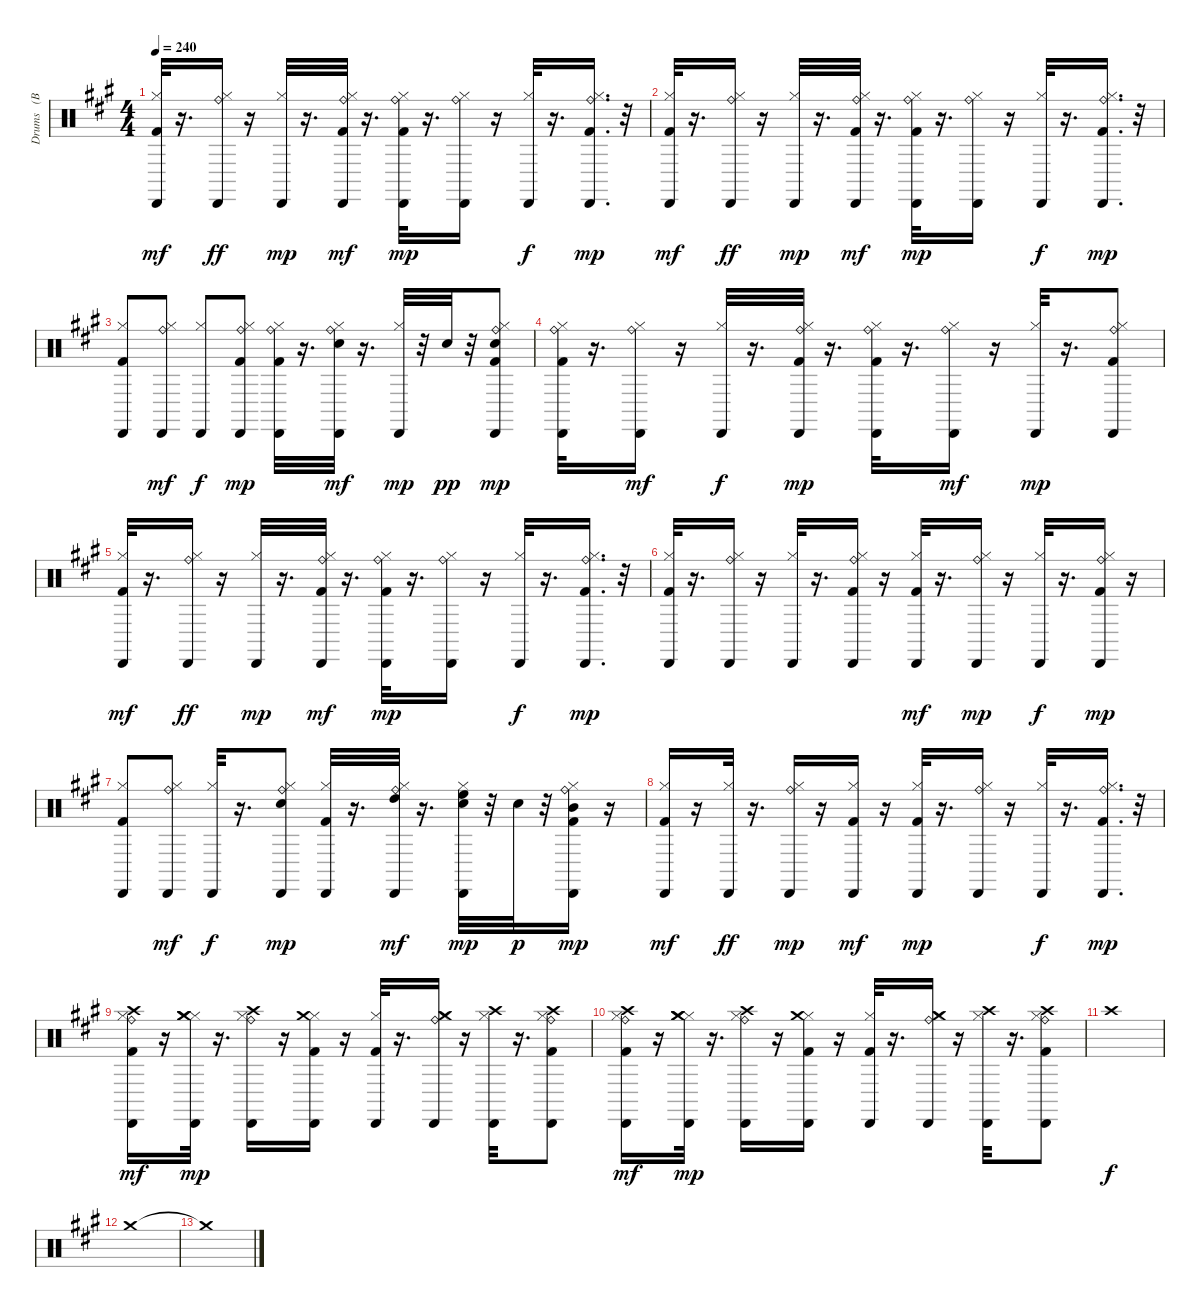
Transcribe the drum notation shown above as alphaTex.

\track ("Drums   (BB)" "Drums   (B") {instrument percussion}
\staff {score}
\articulation defaults
\ts (4 4)
\tempo 240
\clef neutral
\ks a
("Kick (hit) 2" "Hi-Hat (closed)" "Cabasa (hit)").32{dy mf} r.16{d} ("Ride (bell)" "Hi-Hat (closed)" "Cabasa (hit)").16{dy ff} r.16 ("Hi-Hat (closed)" "Cabasa (hit)").32{dy mp} r.16{d} ("Ride (bell)" "Kick (hit) 2" "Hi-Hat (closed)" "Cabasa (hit)").32{dy mf} r.16{d} ("Ride (bell)" "Kick (hit) 2" "Hi-Hat (closed)" "Cabasa (hit)").32{dy mp} r.16{d} ("Ride (bell)" "Hi-Hat (closed)" "Cabasa (hit)").16 r.16 ("Hi-Hat (closed)" "Cabasa (hit)").32{dy f} r.16{d} ("Ride (bell)" "Kick (hit) 2" "Hi-Hat (closed)" "Cabasa (hit)").16{d dy mp} r.32 |
("Kick (hit) 2" "Hi-Hat (closed)" "Cabasa (hit)").32{dy mf} r.16{d} ("Ride (bell)" "Hi-Hat (closed)" "Cabasa (hit)").16{dy ff} r.16 ("Hi-Hat (closed)" "Cabasa (hit)").32{dy mp} r.16{d} ("Ride (bell)" "Kick (hit) 2" "Hi-Hat (closed)" "Cabasa (hit)").32{dy mf} r.16{d} ("Ride (bell)" "Kick (hit) 2" "Hi-Hat (closed)" "Cabasa (hit)").32{dy mp} r.16{d} ("Ride (bell)" "Hi-Hat (closed)" "Cabasa (hit)").16 r.16 ("Hi-Hat (closed)" "Cabasa (hit)").32{dy f} r.16{d} ("Ride (bell)" "Kick (hit) 2" "Hi-Hat (closed)" "Cabasa (hit)").16{d dy mp} r.32 |
("Kick (hit) 2" "Hi-Hat (closed)" "Cabasa (hit)").8 ("Ride (bell)" "Hi-Hat (closed)" "Cabasa (hit)").8{dy mf} ("Hi-Hat (closed)" "Cabasa (hit)").8{dy f} ("Ride (bell)" "Kick (hit) 2" "Hi-Hat (closed)" "Cabasa (hit)").8{dy mp} ("Ride (bell)" "Kick (hit) 2" "Hi-Hat (closed)" "Cabasa (hit)").32 r.16{d} ("Electric Snare (hit)" "Ride (bell)" "Hi-Hat (closed)" "Cabasa (hit)").32{dy mf} r.16{d} ("Hi-Hat (closed)" "Cabasa (hit)").32{dy mp} r.32 "Electric Snare (hit)".32{dy pp} r.32 ("Electric Snare (hit)" "Ride (bell)" "Kick (hit) 2" "Hi-Hat (closed)" "Cabasa (hit)").8{dy mp} |
("Ride (bell)" "Kick (hit) 2" "Hi-Hat (closed)" "Cabasa (hit)").32 r.16{d} ("Ride (bell)" "Hi-Hat (closed)" "Cabasa (hit)").16{dy mf} r.16 ("Hi-Hat (closed)" "Cabasa (hit)").32{dy f} r.16{d} ("Ride (bell)" "Kick (hit) 2" "Hi-Hat (closed)" "Cabasa (hit)").32{dy mp} r.16{d} ("Ride (bell)" "Kick (hit) 2" "Hi-Hat (closed)" "Cabasa (hit)").32 r.16{d} ("Ride (bell)" "Hi-Hat (closed)" "Cabasa (hit)").16{dy mf} r.16 ("Hi-Hat (closed)" "Cabasa (hit)").32{dy mp} r.16{d} ("Ride (bell)" "Kick (hit) 2" "Hi-Hat (closed)" "Cabasa (hit)").8 |
("Kick (hit) 2" "Hi-Hat (closed)" "Cabasa (hit)").32{dy mf} r.16{d} ("Ride (bell)" "Hi-Hat (closed)" "Cabasa (hit)").16{dy ff} r.16 ("Hi-Hat (closed)" "Cabasa (hit)").32{dy mp} r.16{d} ("Ride (bell)" "Kick (hit) 2" "Hi-Hat (closed)" "Cabasa (hit)").32{dy mf} r.16{d} ("Ride (bell)" "Kick (hit) 2" "Hi-Hat (closed)" "Cabasa (hit)").32{dy mp} r.16{d} ("Ride (bell)" "Hi-Hat (closed)" "Cabasa (hit)").16 r.16 ("Hi-Hat (closed)" "Cabasa (hit)").32{dy f} r.16{d} ("Ride (bell)" "Kick (hit) 2" "Hi-Hat (closed)" "Cabasa (hit)").16{d dy mp} r.32 |
("Kick (hit) 2" "Hi-Hat (closed)" "Cabasa (hit)").32 r.16{d} ("Ride (bell)" "Hi-Hat (closed)" "Cabasa (hit)").16 r.16 ("Hi-Hat (closed)" "Cabasa (hit)").32 r.16{d} ("Ride (bell)" "Kick (hit) 2" "Hi-Hat (closed)" "Cabasa (hit)").16 r.16 ("Kick (hit) 2" "Hi-Hat (closed)" "Cabasa (hit)").32{dy mf} r.16{d} ("Ride (bell)" "Hi-Hat (closed)" "Cabasa (hit)").16{dy mp} r.16 ("Hi-Hat (closed)" "Cabasa (hit)").32{dy f} r.16{d} ("Ride (bell)" "Kick (hit) 2" "Hi-Hat (closed)" "Cabasa (hit)").16{dy mp} r.16 |
("Kick (hit) 2" "Hi-Hat (closed)" "Cabasa (hit)").8 ("Ride (bell)" "Hi-Hat (closed)" "Cabasa (hit)").8{dy mf} ("Hi-Hat (closed)" "Cabasa (hit)").32{dy f} r.16{d} ("Electric Snare (hit)" "Ride (bell)" "Hi-Hat (closed)" "Cabasa (hit)").8{dy mp} ("Kick (hit) 2" "Hi-Hat (closed)" "Cabasa (hit)").32 r.16{d} ("High Tom (hit)" "Ride (bell)" "Hi-Hat (closed)" "Cabasa (hit)").32{dy mf} r.16{d} ("Electric Snare (hit)" "High Floor Tom (hit)" "Hi-Hat (closed)" "Cabasa (hit)").32{dy mp} r.32 "Electric Snare (hit)".32{dy p} r.32 ("Mid Tom (hit)" "Ride (bell)" "Kick (hit) 2" "Hi-Hat (closed)" "Cabasa (hit)").16{dy mp} r.16 |
("Kick (hit) 2" "Hi-Hat (closed)" "Cabasa (hit)").16{dy mf} r.16 ("Hi-Hat (closed)" "Cabasa (hit)").32{dy ff} r.16{d} ("Ride (bell)" "Hi-Hat (closed)" "Cabasa (hit)").16{dy mp} r.16 ("Kick (hit) 2" "Hi-Hat (closed)" "Cabasa (hit)").16{dy mf} r.16 ("Kick (hit) 2" "Hi-Hat (closed)" "Cabasa (hit)").32{dy mp} r.16{d} ("Ride (bell)" "Hi-Hat (closed)" "Cabasa (hit)").16 r.16 ("Hi-Hat (closed)" "Cabasa (hit)").32{dy f} r.16{d} ("Ride (bell)" "Kick (hit) 2" "Hi-Hat (closed)" "Cabasa (hit)").16{d dy mp} r.32 |
("Ride (bell)" "Kick (hit) 2" "Hi-Hat (closed)" "Cabasa (hit)" "Crash high (hit)").16{dy mf} r.16 ("Hi-Hat (closed)" "Cabasa (hit)" "Crash medium (hit)" "Crash medium (hit)").32{dy mp} r.16{d} ("Ride (bell)" "Hi-Hat (closed)" "Cabasa (hit)" "Crash high (hit)").16 r.16 ("Kick (hit) 2" "Hi-Hat (closed)" "Cabasa (hit)" "Crash medium (hit)").16 r.16 ("Kick (hit) 2" "Hi-Hat (closed)" "Cabasa (hit)").32 r.16{d} ("Ride (bell)" "Hi-Hat (closed)" "Cabasa (hit)" "Crash medium (hit)").16 r.16 ("Hi-Hat (closed)" "Cabasa (hit)" "Crash high (hit)").32 r.16{d} ("Ride (bell)" "Kick (hit) 2" "Hi-Hat (closed)" "Cabasa (hit)" "Crash high (hit)").8 |
("Ride (bell)" "Kick (hit) 2" "Hi-Hat (closed)" "Cabasa (hit)" "Crash high (hit)").16{dy mf} r.16 ("Hi-Hat (closed)" "Cabasa (hit)" "Crash medium (hit)" "Crash medium (hit)").32{dy mp} r.16{d} ("Ride (bell)" "Hi-Hat (closed)" "Cabasa (hit)" "Crash high (hit)").16 r.16 ("Kick (hit) 2" "Hi-Hat (closed)" "Cabasa (hit)" "Crash medium (hit)").16 r.16 ("Kick (hit) 2" "Hi-Hat (closed)" "Cabasa (hit)").32 r.16{d} ("Ride (bell)" "Hi-Hat (closed)" "Cabasa (hit)" "Crash medium (hit)").16 r.16 ("Hi-Hat (closed)" "Cabasa (hit)" "Crash high (hit)").32 r.16{d} ("Ride (bell)" "Kick (hit) 2" "Hi-Hat (closed)" "Cabasa (hit)" "Crash high (hit)").8 |
"Crash high (hit)".1{dy f} |
"Crash medium (hit)".1 |
"Crash medium (hit)"{t}.1
